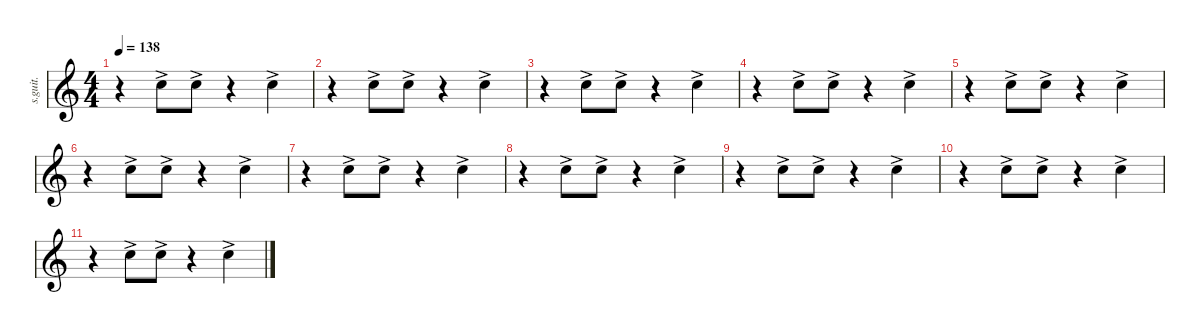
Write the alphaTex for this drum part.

\defaultSystemsLayout 4
\hideDynamics
\bracketExtendMode nobrackets
\track ("Hand Claps" "s.guit.") {instrument percussion}
\staff {score}
\articulation defaults
\ts (4 4)
\tempo 138
\clef g2
\ks c
r.4{dy fff} "Hand Clap (hit)"{ac}.8 "Hand Clap (hit)"{ac}.8 r.4 "Hand Clap (hit)"{ac}.4 |
r.4 "Hand Clap (hit)"{ac}.8 "Hand Clap (hit)"{ac}.8 r.4 "Hand Clap (hit)"{ac}.4 |
r.4 "Hand Clap (hit)"{ac}.8 "Hand Clap (hit)"{ac}.8 r.4 "Hand Clap (hit)"{ac}.4 |
r.4 "Hand Clap (hit)"{ac}.8 "Hand Clap (hit)"{ac}.8 r.4 "Hand Clap (hit)"{ac}.4 |
r.4 "Hand Clap (hit)"{ac}.8 "Hand Clap (hit)"{ac}.8 r.4 "Hand Clap (hit)"{ac}.4 |
r.4 "Hand Clap (hit)"{ac}.8 "Hand Clap (hit)"{ac}.8 r.4 "Hand Clap (hit)"{ac}.4 |
r.4 "Hand Clap (hit)"{ac}.8 "Hand Clap (hit)"{ac}.8 r.4 "Hand Clap (hit)"{ac}.4 |
r.4 "Hand Clap (hit)"{ac}.8 "Hand Clap (hit)"{ac}.8 r.4 "Hand Clap (hit)"{ac}.4 |
r.4 "Hand Clap (hit)"{ac}.8 "Hand Clap (hit)"{ac}.8 r.4 "Hand Clap (hit)"{ac}.4 |
r.4 "Hand Clap (hit)"{ac}.8 "Hand Clap (hit)"{ac}.8 r.4 "Hand Clap (hit)"{ac}.4 |
r.4 "Hand Clap (hit)"{ac}.8 "Hand Clap (hit)"{ac}.8 r.4 "Hand Clap (hit)"{ac}.4
